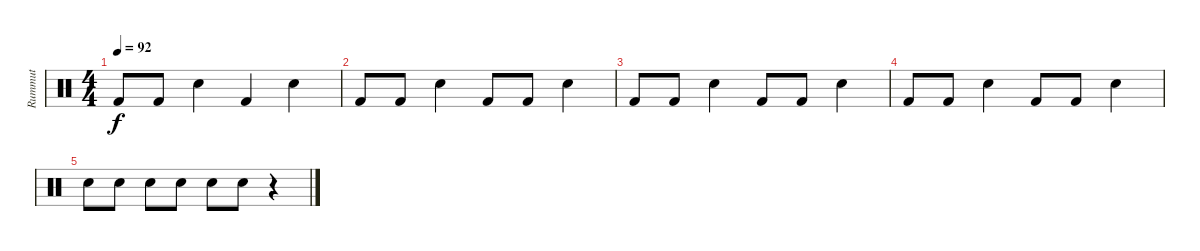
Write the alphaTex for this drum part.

\track ("Rummut" "Rummut") {instrument percussion}
\staff {score}
\articulation defaults
\ts (4 4)
\tempo 92
\clef neutral
\ks c "Kick (hit) 2".8{dy f} "Kick (hit) 2".8 "Snare (hit) 2".4 "Kick (hit) 2".4 "Snare (hit) 2".4
|
"Kick (hit) 2".8 "Kick (hit) 2".8 "Snare (hit) 2".4 "Kick (hit) 2".8 "Kick (hit) 2".8 "Snare (hit) 2".4 |
"Kick (hit) 2".8 "Kick (hit) 2".8 "Snare (hit) 2".4 "Kick (hit) 2".8 "Kick (hit) 2".8 "Snare (hit) 2".4 |
"Kick (hit) 2".8 "Kick (hit) 2".8 "Snare (hit) 2".4 "Kick (hit) 2".8 "Kick (hit) 2".8 "Snare (hit) 2".4 |
"Snare (hit) 2".8 "Snare (hit) 2".8 "Snare (hit) 2".8 "Snare (hit) 2".8 "Snare (hit) 2".8 "Snare (hit) 2".8 r.4
